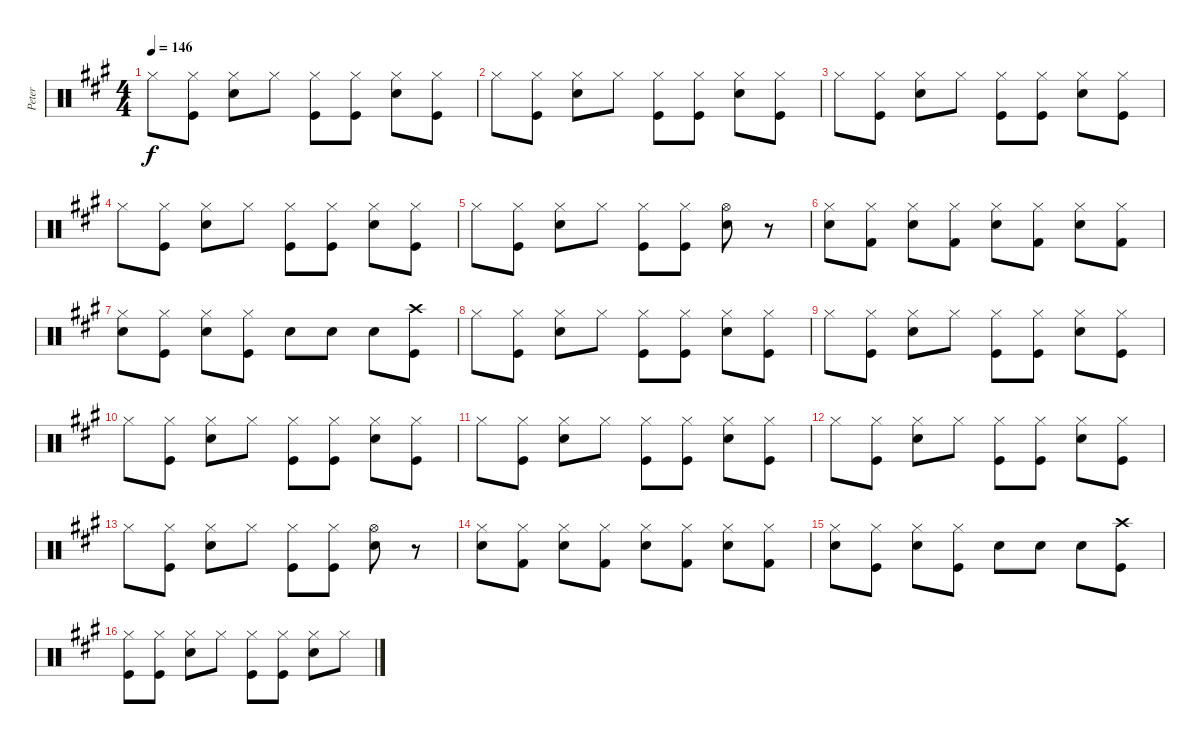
\track ("Peter" "Peter") {instrument percussion}
\staff {score}
\articulation defaults
\ts (4 4)
\tempo 146
\clef neutral
\ks a "Hi-Hat (closed)".8{dy f}
("Hi-Hat (closed)" "Kick (hit)").8 ("Hi-Hat (closed)" "Snare (hit) 2").8 "Hi-Hat (closed)".8 ("Hi-Hat (closed)" "Kick (hit)").8 ("Hi-Hat (closed)" "Kick (hit)").8 ("Hi-Hat (closed)" "Snare (hit) 2").8 ("Hi-Hat (closed)" "Kick (hit)").8 |
"Hi-Hat (closed)".8 ("Hi-Hat (closed)" "Kick (hit)").8 ("Hi-Hat (closed)" "Snare (hit) 2").8 "Hi-Hat (closed)".8 ("Hi-Hat (closed)" "Kick (hit)").8 ("Hi-Hat (closed)" "Kick (hit)").8 ("Hi-Hat (closed)" "Snare (hit) 2").8 ("Hi-Hat (closed)" "Kick (hit)").8 |
"Hi-Hat (closed)".8 ("Hi-Hat (closed)" "Kick (hit)").8 ("Hi-Hat (closed)" "Snare (hit) 2").8 "Hi-Hat (closed)".8 ("Hi-Hat (closed)" "Kick (hit)").8 ("Hi-Hat (closed)" "Kick (hit)").8 ("Hi-Hat (closed)" "Snare (hit) 2").8 ("Hi-Hat (closed)" "Kick (hit)").8 |
"Hi-Hat (closed)".8 ("Hi-Hat (closed)" "Kick (hit)").8 ("Hi-Hat (closed)" "Snare (hit) 2").8 "Hi-Hat (closed)".8 ("Hi-Hat (closed)" "Kick (hit)").8 ("Hi-Hat (closed)" "Kick (hit)").8 ("Hi-Hat (closed)" "Snare (hit) 2").8 ("Hi-Hat (closed)" "Kick (hit)").8 |
"Hi-Hat (closed)".8 ("Hi-Hat (closed)" "Kick (hit)").8 ("Hi-Hat (closed)" "Snare (hit) 2").8 "Hi-Hat (closed)".8 ("Hi-Hat (closed)" "Kick (hit)").8 ("Hi-Hat (closed)" "Kick (hit)").8 ("Hi-Hat (open)" "Snare (hit) 2").8 r.8 |
("Hi-Hat (closed)" "Snare (hit) 2").8 ("Hi-Hat (closed)" "Kick (hit) 2").8 ("Hi-Hat (closed)" "Snare (hit) 2").8 ("Hi-Hat (closed)" "Kick (hit) 2").8 ("Hi-Hat (closed)" "Snare (hit) 2").8 ("Hi-Hat (closed)" "Kick (hit) 2").8 ("Hi-Hat (closed)" "Snare (hit) 2").8 ("Hi-Hat (closed)" "Kick (hit) 2").8 |
("Hi-Hat (closed)" "Snare (hit) 2").8 ("Hi-Hat (closed)" "Kick (hit)").8 ("Hi-Hat (closed)" "Snare (hit) 2").8 ("Hi-Hat (closed)" "Kick (hit)").8 "Snare (hit) 2".8 "Snare (hit) 2".8 "Snare (hit) 2".8 ("Crash high (hit)" "Kick (hit)").8 |
"Hi-Hat (closed)".8 ("Hi-Hat (closed)" "Kick (hit)").8 ("Hi-Hat (closed)" "Snare (hit) 2").8 "Hi-Hat (closed)".8 ("Hi-Hat (closed)" "Kick (hit)").8 ("Hi-Hat (closed)" "Kick (hit)").8 ("Hi-Hat (closed)" "Snare (hit) 2").8 ("Hi-Hat (closed)" "Kick (hit)").8 |
"Hi-Hat (closed)".8 ("Hi-Hat (closed)" "Kick (hit)").8 ("Hi-Hat (closed)" "Snare (hit) 2").8 "Hi-Hat (closed)".8 ("Hi-Hat (closed)" "Kick (hit)").8 ("Hi-Hat (closed)" "Kick (hit)").8 ("Hi-Hat (closed)" "Snare (hit) 2").8 ("Hi-Hat (closed)" "Kick (hit)").8 |
"Hi-Hat (closed)".8 ("Hi-Hat (closed)" "Kick (hit)").8 ("Hi-Hat (closed)" "Snare (hit) 2").8 "Hi-Hat (closed)".8 ("Hi-Hat (closed)" "Kick (hit)").8 ("Hi-Hat (closed)" "Kick (hit)").8 ("Hi-Hat (closed)" "Snare (hit) 2").8 ("Hi-Hat (closed)" "Kick (hit)").8 |
"Hi-Hat (closed)".8 ("Hi-Hat (closed)" "Kick (hit)").8 ("Hi-Hat (closed)" "Snare (hit) 2").8 "Hi-Hat (closed)".8 ("Hi-Hat (closed)" "Kick (hit)").8 ("Hi-Hat (closed)" "Kick (hit)").8 ("Hi-Hat (closed)" "Snare (hit) 2").8 ("Hi-Hat (closed)" "Kick (hit)").8 |
"Hi-Hat (closed)".8 ("Hi-Hat (closed)" "Kick (hit)").8 ("Hi-Hat (closed)" "Snare (hit) 2").8 "Hi-Hat (closed)".8 ("Hi-Hat (closed)" "Kick (hit)").8 ("Hi-Hat (closed)" "Kick (hit)").8 ("Hi-Hat (closed)" "Snare (hit) 2").8 ("Hi-Hat (closed)" "Kick (hit)").8 |
"Hi-Hat (closed)".8 ("Hi-Hat (closed)" "Kick (hit)").8 ("Hi-Hat (closed)" "Snare (hit) 2").8 "Hi-Hat (closed)".8 ("Hi-Hat (closed)" "Kick (hit)").8 ("Hi-Hat (closed)" "Kick (hit)").8 ("Hi-Hat (open)" "Snare (hit) 2").8 r.8 |
("Hi-Hat (closed)" "Snare (hit) 2").8 ("Hi-Hat (closed)" "Kick (hit) 2").8 ("Hi-Hat (closed)" "Snare (hit) 2").8 ("Hi-Hat (closed)" "Kick (hit) 2").8 ("Hi-Hat (closed)" "Snare (hit) 2").8 ("Hi-Hat (closed)" "Kick (hit) 2").8 ("Hi-Hat (closed)" "Snare (hit) 2").8 ("Hi-Hat (closed)" "Kick (hit) 2").8 |
("Hi-Hat (closed)" "Snare (hit) 2").8 ("Hi-Hat (closed)" "Kick (hit)").8 ("Hi-Hat (closed)" "Snare (hit) 2").8 ("Hi-Hat (closed)" "Kick (hit)").8 "Snare (hit) 2".8 "Snare (hit) 2".8 "Snare (hit) 2".8 ("Crash high (hit)" "Kick (hit)").8 |
("Hi-Hat (closed)" "Kick (hit)").8 ("Hi-Hat (closed)" "Kick (hit)").8 ("Hi-Hat (closed)" "Snare (hit) 2").8 "Hi-Hat (closed)".8 ("Hi-Hat (closed)" "Kick (hit)").8 ("Hi-Hat (closed)" "Kick (hit)").8 ("Hi-Hat (closed)" "Snare (hit) 2").8 "Hi-Hat (closed)".8
